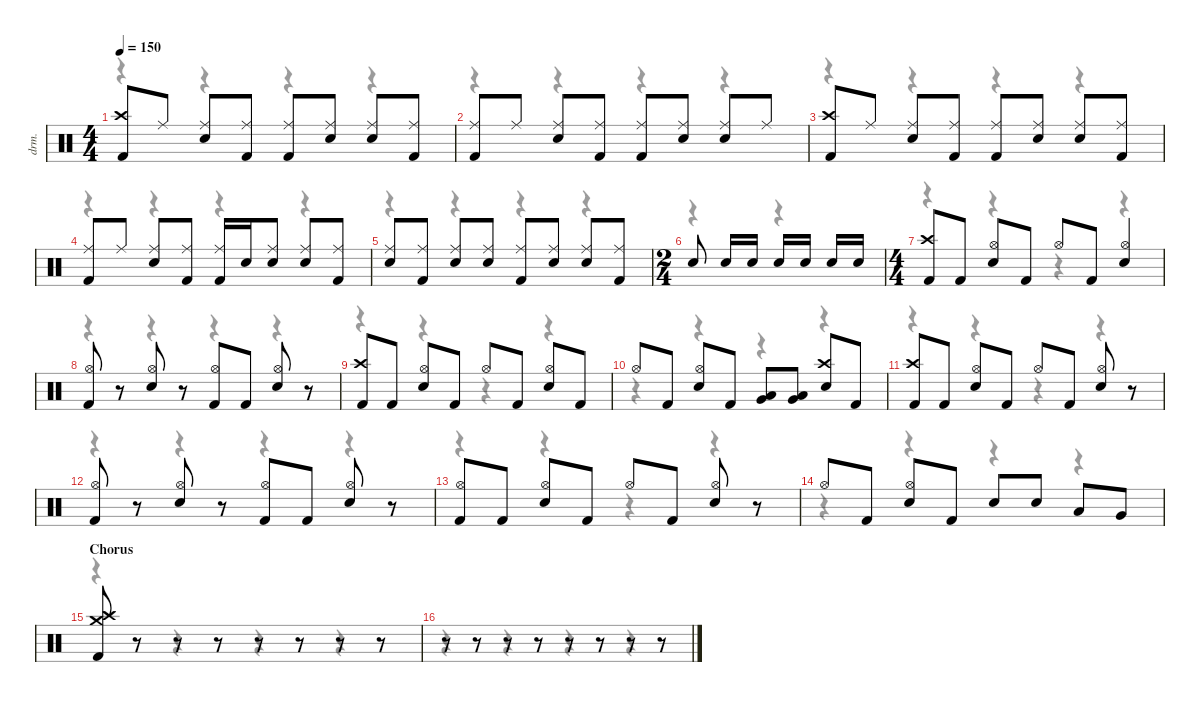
\defaultSystemsLayout 4
\hideDynamics
\bracketExtendMode nobrackets
\otherSystemsTrackNameOrientation horizontal
\track ("Drums" "drm.") {instrument percussion}
\staff {score}
\articulation defaults
\voice
\ts (4 4)
\tempo 150
\clef neutral
\ks c
("Crash high (hit)" "Kick (hit) 2").8{dy fff beam Up} "Ride (middle)".8{dy f beam Up} ("Ride (middle)" "Snare (hit) 2").8{beam Up} ("Ride (middle)" "Kick (hit) 2").8{beam Up} ("Ride (middle)" "Kick (hit) 2").8{beam Up} ("Ride (middle)" "Snare (hit) 2").8{beam Up} ("Ride (middle)" "Snare (hit) 2").8{beam Up} ("Ride (middle)" "Kick (hit) 2").8{beam Up} |
("Ride (middle)" "Kick (hit) 2").8{beam Up} "Ride (middle)".8{beam Up} ("Ride (middle)" "Snare (hit) 2").8{beam Up} ("Ride (middle)" "Kick (hit) 2").8{beam Up} ("Ride (middle)" "Kick (hit) 2").8{beam Up} ("Ride (middle)" "Snare (hit) 2").8{beam Up} ("Ride (middle)" "Snare (hit) 2").8{beam Up} "Ride (middle)".8{beam Up} |
("Crash high (hit)" "Kick (hit) 2").8{dy fff beam Up} "Ride (middle)".8{dy f beam Up} ("Ride (middle)" "Snare (hit) 2").8{beam Up} ("Ride (middle)" "Kick (hit) 2").8{beam Up} ("Ride (middle)" "Kick (hit) 2").8{beam Up} ("Ride (middle)" "Snare (hit) 2").8{beam Up} ("Ride (middle)" "Snare (hit) 2").8{beam Up} ("Ride (middle)" "Kick (hit) 2").8{beam Up} |
("Ride (middle)" "Kick (hit) 2").8{beam Up} "Ride (middle)".8{beam Up} ("Ride (middle)" "Snare (hit) 2").8{beam Up} ("Ride (middle)" "Kick (hit) 2").8{beam Up} ("Ride (middle)" "Kick (hit) 2").16{beam Up} "Snare (hit) 2".16{dy fff beam Up} ("Ride (middle)" "Snare (hit) 2").8{dy f beam Up} ("Ride (middle)" "Snare (hit) 2").8{beam Up} ("Ride (middle)" "Kick (hit) 2").8{beam Up} |
("Ride (middle)" "Snare (hit) 2").8{beam Up} ("Ride (middle)" "Kick (hit) 2").8{beam Up} ("Ride (middle)" "Snare (hit) 2").8{beam Up} ("Ride (middle)" "Snare (hit) 2").8{beam Up} ("Ride (middle)" "Kick (hit) 2").8{beam Up} ("Ride (middle)" "Snare (hit) 2").8{beam Up} ("Ride (middle)" "Snare (hit) 2").8{beam Up} ("Ride (middle)" "Kick (hit) 2").8{beam Up} |
\ts (2 4)
\beaming (8 1 1 1 1)
"Snare (hit) 2".8{dy fff beam Up} "Snare (hit) 2".16{beam Up} "Snare (hit) 2".16{beam Up} "Snare (hit) 2".16{beam Up} "Snare (hit) 2".16{beam Up} "Snare (hit) 2".16{beam Up} "Snare (hit) 2".16{beam Up} |
\ts (4 4)
\beaming (8 2 2 2 2)
("Crash high (hit)" "Kick (hit) 2").8{beam Up} "Kick (hit) 2".8{beam Up} ("Hi-Hat (open)" "Snare (hit) 2").8{dy f beam Up} "Kick (hit) 2".8{dy fff beam Up} "Hi-Hat (open)".8{dy f beam Up} "Kick (hit) 2".8{dy fff beam Up} ("Hi-Hat (open)" "Snare (hit) 2").4{dy f beam Up} |
("Hi-Hat (open)" "Kick (hit) 2").8{beam Up} r.8{beam Up} ("Hi-Hat (open)" "Snare (hit) 2").8{beam Up} r.8{beam Up} ("Hi-Hat (open)" "Kick (hit) 2").8{beam Up} "Kick (hit) 2".8{dy fff beam Up} ("Hi-Hat (open)" "Snare (hit) 2").8{dy f beam Up} r.8{beam Up} |
("Crash high (hit)" "Kick (hit) 2").8{dy fff beam Up} "Kick (hit) 2".8{beam Up} ("Hi-Hat (open)" "Snare (hit) 2").8{dy f beam Up} "Kick (hit) 2".8{dy fff beam Up} "Hi-Hat (open)".8{dy f beam Up} "Kick (hit) 2".8{dy fff beam Up} ("Hi-Hat (open)" "Snare (hit) 2").8{dy f beam Up} "Kick (hit) 2".8{dy fff beam Up} |
"Hi-Hat (open)".8{dy f beam Up} "Kick (hit) 2".8{dy fff beam Up} ("Hi-Hat (open)" "Snare (hit) 2").8{dy f beam Up} "Kick (hit) 2".8{dy fff beam Up} ("Low Floor Tom (hit)" "Very Low Tom (hit)").8{beam Up} ("Low Floor Tom (hit)" "Very Low Tom (hit)").8{beam Up} ("Crash high (hit)" "Snare (hit) 2").8{beam Up} "Kick (hit) 2".8{beam Up} |
("Crash high (hit)" "Kick (hit) 2").8{beam Up} "Kick (hit) 2".8{beam Up} ("Hi-Hat (open)" "Snare (hit) 2").8{dy f beam Up} "Kick (hit) 2".8{dy fff beam Up} "Hi-Hat (open)".8{dy f beam Up} "Kick (hit) 2".8{dy fff beam Up} ("Hi-Hat (open)" "Snare (hit) 2").8{dy f beam Up} r.8{beam Up} |
("Hi-Hat (open)" "Kick (hit) 2").8{beam Up} r.8{beam Up} ("Hi-Hat (open)" "Snare (hit) 2").8{beam Up} r.8{beam Up} ("Hi-Hat (open)" "Kick (hit) 2").8{beam Up} "Kick (hit) 2".8{dy fff beam Up} ("Hi-Hat (open)" "Snare (hit) 2").8{dy f beam Up} r.8{beam Up} |
("Hi-Hat (open)" "Kick (hit) 2").8{beam Up} "Kick (hit) 2".8{dy fff beam Up} ("Hi-Hat (open)" "Snare (hit) 2").8{dy f beam Up} "Kick (hit) 2".8{dy fff beam Up} "Hi-Hat (open)".8{dy f beam Up} "Kick (hit) 2".8{dy fff beam Up} ("Hi-Hat (open)" "Snare (hit) 2").8{dy f beam Up} r.8{beam Up} |
"Hi-Hat (open)".8{beam Up} "Kick (hit) 2".8{dy fff beam Up} ("Hi-Hat (open)" "Snare (hit) 2").8{dy f beam Up} "Kick (hit) 2".8{dy fff beam Up} "Snare (hit) 2".8{beam Up} "Snare (hit) 2".8{beam Up} "Low Tom (hit)".8{beam Up} "Very Low Tom (hit)".8{beam Up} |
\section ("" "Chorus")
("Crash high (hit)" "Crash medium (hit)" "Kick (hit) 2").8{beam Up} r.8{beam Up} r.8{beam Up} r.8{beam Up} r.8{beam Up} r.8{beam Up} r.8{beam Up} r.8{beam Up} |
r.8{beam Up} r.8{beam Up} r.8{beam Up} r.8{beam Up} r.8{beam Up} r.8{beam Up} r.8{beam Up} r.8{beam Up}
\voice
\clef neutral
\ottava regular
\simile none
\ks c
r.4{dy mf beam Down} r.4{beam Down} r.4{beam Down} r.4{beam Down} |
r.4{beam Down} r.4{beam Down} r.4{beam Down} r.4{beam Down} |
r.4{beam Down} r.4{beam Down} r.4{beam Down} r.4{beam Down} |
r.4{beam Down} r.4{beam Down} r.4{beam Down} r.4{beam Down} |
r.4{beam Down} r.4{beam Down} r.4{beam Down} r.4{beam Down} |
r.4{beam Down} r.4{beam Down} |
r.4{beam Down} r.4{beam Down} r.4{beam Down} r.4{beam Down} |
r.4{beam Down} r.4{beam Down} r.4{beam Down} r.4{beam Down} |
r.4{beam Down} r.4{beam Down} r.4{beam Down} r.4{beam Down} |
r.4{beam Down} r.4{beam Down} r.4{beam Down} r.4{beam Down} |
r.4{beam Down} r.4{beam Down} r.4{beam Down} r.4{beam Down} |
r.4{beam Down} r.4{beam Down} r.4{beam Down} r.4{beam Down} |
r.4{beam Down} r.4{beam Down} r.4{beam Down} r.4{beam Down} |
r.4{beam Down} r.4{beam Down} r.4{beam Down} r.4{beam Down} |
r.4{beam Down} r.4{beam Down} r.4{beam Down} r.4{beam Down} |
r.4{beam Down} r.4{beam Down} r.4{beam Down} r.4{beam Down}
